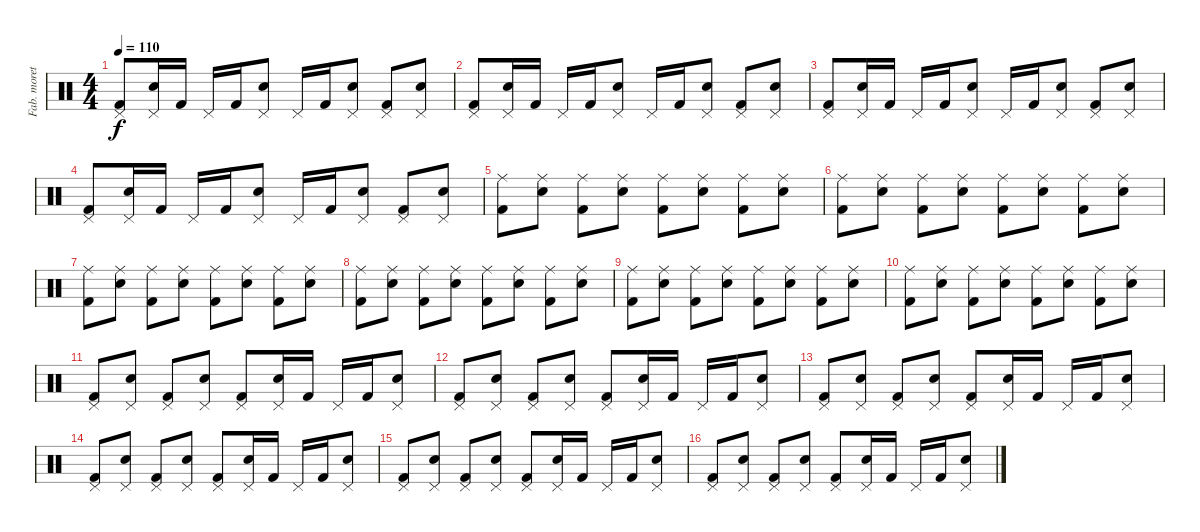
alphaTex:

\track ("Fab. moretti" "Fab. moret") {instrument percussion}
\staff {score}
\articulation defaults
\ts (4 4)
\tempo 110
\clef neutral
\ks c
("Pedal Hi-Hat (hit)" "Kick (hit) 2").8{dy f} ("Pedal Hi-Hat (hit)" "Electric Snare (hit)").16 "Kick (hit) 2".16 "Pedal Hi-Hat (hit)".16 "Kick (hit) 2".16 ("Pedal Hi-Hat (hit)" "Electric Snare (hit)").8 "Pedal Hi-Hat (hit)".16 "Kick (hit) 2".16 ("Pedal Hi-Hat (hit)" "Electric Snare (hit)").8 ("Pedal Hi-Hat (hit)" "Kick (hit) 2").8 ("Pedal Hi-Hat (hit)" "Electric Snare (hit)").8 |
("Pedal Hi-Hat (hit)" "Kick (hit) 2").8 ("Pedal Hi-Hat (hit)" "Electric Snare (hit)").16 "Kick (hit) 2".16 "Pedal Hi-Hat (hit)".16 "Kick (hit) 2".16 ("Pedal Hi-Hat (hit)" "Electric Snare (hit)").8 "Pedal Hi-Hat (hit)".16 "Kick (hit) 2".16 ("Pedal Hi-Hat (hit)" "Electric Snare (hit)").8 ("Pedal Hi-Hat (hit)" "Kick (hit) 2").8 ("Pedal Hi-Hat (hit)" "Electric Snare (hit)").8 |
("Pedal Hi-Hat (hit)" "Kick (hit) 2").8 ("Pedal Hi-Hat (hit)" "Electric Snare (hit)").16 "Kick (hit) 2".16 "Pedal Hi-Hat (hit)".16 "Kick (hit) 2".16 ("Pedal Hi-Hat (hit)" "Electric Snare (hit)").8 "Pedal Hi-Hat (hit)".16 "Kick (hit) 2".16 ("Pedal Hi-Hat (hit)" "Electric Snare (hit)").8 ("Pedal Hi-Hat (hit)" "Kick (hit) 2").8 ("Pedal Hi-Hat (hit)" "Electric Snare (hit)").8 |
("Pedal Hi-Hat (hit)" "Kick (hit) 2").8 ("Pedal Hi-Hat (hit)" "Electric Snare (hit)").16 "Kick (hit) 2".16 "Pedal Hi-Hat (hit)".16 "Kick (hit) 2".16 ("Pedal Hi-Hat (hit)" "Electric Snare (hit)").8 "Pedal Hi-Hat (hit)".16 "Kick (hit) 2".16 ("Pedal Hi-Hat (hit)" "Electric Snare (hit)").8 ("Pedal Hi-Hat (hit)" "Kick (hit) 2").8 ("Pedal Hi-Hat (hit)" "Electric Snare (hit)").8 |
("Ride (middle)" "Kick (hit) 2").8 ("Ride (middle)" "Electric Snare (hit)").8 ("Ride (middle)" "Kick (hit) 2").8 ("Ride (middle)" "Electric Snare (hit)").8 ("Ride (middle)" "Kick (hit) 2").8 ("Ride (middle)" "Electric Snare (hit)").8 ("Ride (middle)" "Kick (hit) 2").8 ("Ride (middle)" "Electric Snare (hit)").8 |
("Ride (middle)" "Kick (hit) 2").8 ("Ride (middle)" "Electric Snare (hit)").8 ("Ride (middle)" "Kick (hit) 2").8 ("Ride (middle)" "Electric Snare (hit)").8 ("Ride (middle)" "Kick (hit) 2").8 ("Ride (middle)" "Electric Snare (hit)").8 ("Ride (middle)" "Kick (hit) 2").8 ("Ride (middle)" "Electric Snare (hit)").8 |
("Ride (middle)" "Kick (hit) 2").8 ("Ride (middle)" "Electric Snare (hit)").8 ("Ride (middle)" "Kick (hit) 2").8 ("Ride (middle)" "Electric Snare (hit)").8 ("Ride (middle)" "Kick (hit) 2").8 ("Ride (middle)" "Electric Snare (hit)").8 ("Ride (middle)" "Kick (hit) 2").8 ("Ride (middle)" "Electric Snare (hit)").8 |
("Ride (middle)" "Kick (hit) 2").8 ("Ride (middle)" "Electric Snare (hit)").8 ("Ride (middle)" "Kick (hit) 2").8 ("Ride (middle)" "Electric Snare (hit)").8 ("Ride (middle)" "Kick (hit) 2").8 ("Ride (middle)" "Electric Snare (hit)").8 ("Ride (middle)" "Kick (hit) 2").8 ("Ride (middle)" "Electric Snare (hit)").8 |
("Ride (middle)" "Kick (hit) 2").8 ("Ride (middle)" "Electric Snare (hit)").8 ("Ride (middle)" "Kick (hit) 2").8 ("Ride (middle)" "Electric Snare (hit)").8 ("Ride (middle)" "Kick (hit) 2").8 ("Ride (middle)" "Electric Snare (hit)").8 ("Ride (middle)" "Kick (hit) 2").8 ("Ride (middle)" "Electric Snare (hit)").8 |
("Ride (middle)" "Kick (hit) 2").8 ("Ride (middle)" "Electric Snare (hit)").8 ("Ride (middle)" "Kick (hit) 2").8 ("Ride (middle)" "Electric Snare (hit)").8 ("Ride (middle)" "Kick (hit) 2").8 ("Ride (middle)" "Electric Snare (hit)").8 ("Ride (middle)" "Kick (hit) 2").8 ("Ride (middle)" "Electric Snare (hit)").8 |
("Pedal Hi-Hat (hit)" "Kick (hit) 2").8 ("Pedal Hi-Hat (hit)" "Electric Snare (hit)").8 ("Pedal Hi-Hat (hit)" "Kick (hit) 2").8 ("Pedal Hi-Hat (hit)" "Electric Snare (hit)").8 ("Pedal Hi-Hat (hit)" "Kick (hit) 2").8 ("Pedal Hi-Hat (hit)" "Electric Snare (hit)").16 "Kick (hit) 2".16 "Pedal Hi-Hat (hit)".16 "Kick (hit) 2".16 ("Pedal Hi-Hat (hit)" "Electric Snare (hit)").8 |
("Pedal Hi-Hat (hit)" "Kick (hit) 2").8 ("Pedal Hi-Hat (hit)" "Electric Snare (hit)").8 ("Pedal Hi-Hat (hit)" "Kick (hit) 2").8 ("Pedal Hi-Hat (hit)" "Electric Snare (hit)").8 ("Pedal Hi-Hat (hit)" "Kick (hit) 2").8 ("Pedal Hi-Hat (hit)" "Electric Snare (hit)").16 "Kick (hit) 2".16 "Pedal Hi-Hat (hit)".16 "Kick (hit) 2".16 ("Pedal Hi-Hat (hit)" "Electric Snare (hit)").8 |
("Pedal Hi-Hat (hit)" "Kick (hit) 2").8 ("Pedal Hi-Hat (hit)" "Electric Snare (hit)").8 ("Pedal Hi-Hat (hit)" "Kick (hit) 2").8 ("Pedal Hi-Hat (hit)" "Electric Snare (hit)").8 ("Pedal Hi-Hat (hit)" "Kick (hit) 2").8 ("Pedal Hi-Hat (hit)" "Electric Snare (hit)").16 "Kick (hit) 2".16 "Pedal Hi-Hat (hit)".16 "Kick (hit) 2".16 ("Pedal Hi-Hat (hit)" "Electric Snare (hit)").8 |
("Pedal Hi-Hat (hit)" "Kick (hit) 2").8 ("Pedal Hi-Hat (hit)" "Electric Snare (hit)").8 ("Pedal Hi-Hat (hit)" "Kick (hit) 2").8 ("Pedal Hi-Hat (hit)" "Electric Snare (hit)").8 ("Pedal Hi-Hat (hit)" "Kick (hit) 2").8 ("Pedal Hi-Hat (hit)" "Electric Snare (hit)").16 "Kick (hit) 2".16 "Pedal Hi-Hat (hit)".16 "Kick (hit) 2".16 ("Pedal Hi-Hat (hit)" "Electric Snare (hit)").8 |
("Pedal Hi-Hat (hit)" "Kick (hit) 2").8 ("Pedal Hi-Hat (hit)" "Electric Snare (hit)").8 ("Pedal Hi-Hat (hit)" "Kick (hit) 2").8 ("Pedal Hi-Hat (hit)" "Electric Snare (hit)").8 ("Pedal Hi-Hat (hit)" "Kick (hit) 2").8 ("Pedal Hi-Hat (hit)" "Electric Snare (hit)").16 "Kick (hit) 2".16 "Pedal Hi-Hat (hit)".16 "Kick (hit) 2".16 ("Pedal Hi-Hat (hit)" "Electric Snare (hit)").8 |
("Pedal Hi-Hat (hit)" "Kick (hit) 2").8 ("Pedal Hi-Hat (hit)" "Electric Snare (hit)").8 ("Pedal Hi-Hat (hit)" "Kick (hit) 2").8 ("Pedal Hi-Hat (hit)" "Electric Snare (hit)").8 ("Pedal Hi-Hat (hit)" "Kick (hit) 2").8 ("Pedal Hi-Hat (hit)" "Electric Snare (hit)").16 "Kick (hit) 2".16 "Pedal Hi-Hat (hit)".16 "Kick (hit) 2".16 ("Pedal Hi-Hat (hit)" "Electric Snare (hit)").8
